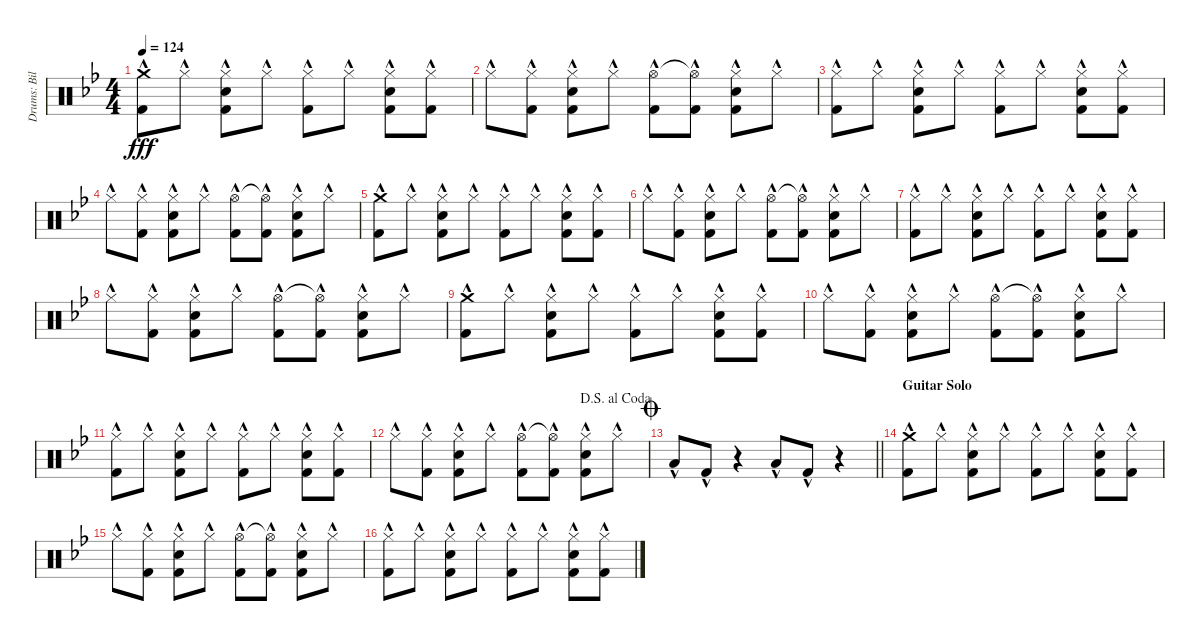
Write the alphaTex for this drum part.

\track ("Drums: Bill" "Drums: Bil") {instrument percussion}
\staff {score}
\articulation defaults
\ts (4 4)
\tempo 124
\clef neutral
\ks bb
("Crash medium (hit)"{hac} "Kick (hit) 2"{hac}).8{dy fff} "Hi-Hat (closed)"{hac}.8 ("Hi-Hat (closed)"{hac} "Snare (hit) 2"{hac} "Kick (hit) 2"{hac}).8 "Hi-Hat (closed)"{hac}.8 ("Hi-Hat (closed)"{hac} "Kick (hit) 2"{hac}).8 "Hi-Hat (closed)"{hac}.8 ("Hi-Hat (closed)"{hac} "Snare (hit) 2"{hac} "Kick (hit) 2"{hac}).8 ("Hi-Hat (closed)"{hac} "Kick (hit) 2"{hac}).8 |
"Hi-Hat (closed)"{hac}.8 ("Hi-Hat (closed)"{hac} "Kick (hit) 2"{hac}).8 ("Hi-Hat (closed)"{hac} "Snare (hit) 2"{hac} "Kick (hit) 2"{hac}).8 "Hi-Hat (closed)"{hac}.8 ("Hi-Hat (open)"{hac} "Kick (hit) 2"{hac}).8 ("Hi-Hat (open)"{t} "Kick (hit) 2"{hac}).8 ("Hi-Hat (closed)"{hac} "Snare (hit) 2"{hac} "Kick (hit) 2"{hac}).8 "Hi-Hat (closed)"{hac}.8 |
("Hi-Hat (closed)"{hac} "Kick (hit) 2"{hac}).8 "Hi-Hat (closed)"{hac}.8 ("Hi-Hat (closed)"{hac} "Snare (hit) 2"{hac} "Kick (hit) 2"{hac}).8 "Hi-Hat (closed)"{hac}.8 ("Hi-Hat (closed)"{hac} "Kick (hit) 2"{hac}).8 "Hi-Hat (closed)"{hac}.8 ("Hi-Hat (closed)"{hac} "Snare (hit) 2"{hac} "Kick (hit) 2"{hac}).8 ("Hi-Hat (closed)"{hac} "Kick (hit) 2"{hac}).8 |
"Hi-Hat (closed)"{hac}.8 ("Hi-Hat (closed)"{hac} "Kick (hit) 2"{hac}).8 ("Hi-Hat (closed)"{hac} "Snare (hit) 2"{hac} "Kick (hit) 2"{hac}).8 "Hi-Hat (closed)"{hac}.8 ("Hi-Hat (open)"{hac} "Kick (hit) 2"{hac}).8 ("Hi-Hat (open)"{t} "Kick (hit) 2"{hac}).8 ("Hi-Hat (closed)"{hac} "Snare (hit) 2"{hac} "Kick (hit) 2"{hac}).8 "Hi-Hat (closed)"{hac}.8 |
("Crash medium (hit)"{hac} "Kick (hit) 2"{hac}).8 "Hi-Hat (closed)"{hac}.8 ("Hi-Hat (closed)"{hac} "Snare (hit) 2"{hac} "Kick (hit) 2"{hac}).8 "Hi-Hat (closed)"{hac}.8 ("Hi-Hat (closed)"{hac} "Kick (hit) 2"{hac}).8 "Hi-Hat (closed)"{hac}.8 ("Hi-Hat (closed)"{hac} "Snare (hit) 2"{hac} "Kick (hit) 2"{hac}).8 ("Hi-Hat (closed)"{hac} "Kick (hit) 2"{hac}).8 |
"Hi-Hat (closed)"{hac}.8 ("Hi-Hat (closed)"{hac} "Kick (hit) 2"{hac}).8 ("Hi-Hat (closed)"{hac} "Snare (hit) 2"{hac} "Kick (hit) 2"{hac}).8 "Hi-Hat (closed)"{hac}.8 ("Hi-Hat (open)"{hac} "Kick (hit) 2"{hac}).8 ("Hi-Hat (open)"{t} "Kick (hit) 2"{hac}).8 ("Hi-Hat (closed)"{hac} "Snare (hit) 2"{hac} "Kick (hit) 2"{hac}).8 "Hi-Hat (closed)"{hac}.8 |
("Hi-Hat (closed)"{hac} "Kick (hit) 2"{hac}).8 "Hi-Hat (closed)"{hac}.8 ("Hi-Hat (closed)"{hac} "Snare (hit) 2"{hac} "Kick (hit) 2"{hac}).8 "Hi-Hat (closed)"{hac}.8 ("Hi-Hat (closed)"{hac} "Kick (hit) 2"{hac}).8 "Hi-Hat (closed)"{hac}.8 ("Hi-Hat (closed)"{hac} "Snare (hit) 2"{hac} "Kick (hit) 2"{hac}).8 ("Hi-Hat (closed)"{hac} "Kick (hit) 2"{hac}).8 |
"Hi-Hat (closed)"{hac}.8 ("Hi-Hat (closed)"{hac} "Kick (hit) 2"{hac}).8 ("Hi-Hat (closed)"{hac} "Snare (hit) 2"{hac} "Kick (hit) 2"{hac}).8 "Hi-Hat (closed)"{hac}.8 ("Hi-Hat (open)"{hac} "Kick (hit) 2"{hac}).8 ("Hi-Hat (open)"{t} "Kick (hit) 2"{hac}).8 ("Hi-Hat (closed)"{hac} "Snare (hit) 2"{hac} "Kick (hit) 2"{hac}).8 "Hi-Hat (closed)"{hac}.8 |
("Crash medium (hit)"{hac} "Kick (hit) 2"{hac}).8 "Hi-Hat (closed)"{hac}.8 ("Hi-Hat (closed)"{hac} "Snare (hit) 2"{hac} "Kick (hit) 2"{hac}).8 "Hi-Hat (closed)"{hac}.8 ("Hi-Hat (closed)"{hac} "Kick (hit) 2"{hac}).8 "Hi-Hat (closed)"{hac}.8 ("Hi-Hat (closed)"{hac} "Snare (hit) 2"{hac} "Kick (hit) 2"{hac}).8 ("Hi-Hat (closed)"{hac} "Kick (hit) 2"{hac}).8 |
"Hi-Hat (closed)"{hac}.8 ("Hi-Hat (closed)"{hac} "Kick (hit) 2"{hac}).8 ("Hi-Hat (closed)"{hac} "Snare (hit) 2"{hac} "Kick (hit) 2"{hac}).8 "Hi-Hat (closed)"{hac}.8 ("Hi-Hat (open)"{hac} "Kick (hit) 2"{hac}).8 ("Hi-Hat (open)"{t} "Kick (hit) 2"{hac}).8 ("Hi-Hat (closed)"{hac} "Snare (hit) 2"{hac} "Kick (hit) 2"{hac}).8 "Hi-Hat (closed)"{hac}.8 |
("Hi-Hat (closed)"{hac} "Kick (hit) 2"{hac}).8 "Hi-Hat (closed)"{hac}.8 ("Hi-Hat (closed)"{hac} "Snare (hit) 2"{hac} "Kick (hit) 2"{hac}).8 "Hi-Hat (closed)"{hac}.8 ("Hi-Hat (closed)"{hac} "Kick (hit) 2"{hac}).8 "Hi-Hat (closed)"{hac}.8 ("Hi-Hat (closed)"{hac} "Snare (hit) 2"{hac} "Kick (hit) 2"{hac}).8 ("Hi-Hat (closed)"{hac} "Kick (hit) 2"{hac}).8 |
\jump dalsegnoalcoda "Hi-Hat (closed)"{hac}.8
("Hi-Hat (closed)"{hac} "Kick (hit) 2"{hac}).8 ("Hi-Hat (closed)"{hac} "Snare (hit) 2"{hac} "Kick (hit) 2"{hac}).8 "Hi-Hat (closed)"{hac}.8 ("Hi-Hat (open)"{hac} "Kick (hit) 2"{hac}).8 ("Hi-Hat (open)"{t} "Kick (hit) 2"{hac}).8 ("Hi-Hat (closed)"{hac} "Snare (hit) 2"{hac} "Kick (hit) 2"{hac}).8 "Hi-Hat (closed)"{hac}.8 |
\jump coda
\barLineRight lightlight "Low Tom (hit)"{hac}.8 "Kick (hit) 2"{hac}.8
r.4 "Low Tom (hit)"{hac}.8 "Kick (hit) 2"{hac}.8 r.4 |
\section ("" "Guitar Solo")
("Crash medium (hit)"{hac} "Kick (hit) 2"{hac}).8 "Hi-Hat (closed)"{hac}.8 ("Hi-Hat (closed)"{hac} "Snare (hit) 2"{hac} "Kick (hit) 2"{hac}).8 "Hi-Hat (closed)"{hac}.8 ("Hi-Hat (closed)"{hac} "Kick (hit) 2"{hac}).8 "Hi-Hat (closed)"{hac}.8 ("Hi-Hat (closed)"{hac} "Snare (hit) 2"{hac} "Kick (hit) 2"{hac}).8 ("Hi-Hat (closed)"{hac} "Kick (hit) 2"{hac}).8 |
"Hi-Hat (closed)"{hac}.8 ("Hi-Hat (closed)"{hac} "Kick (hit) 2"{hac}).8 ("Hi-Hat (closed)"{hac} "Snare (hit) 2"{hac} "Kick (hit) 2"{hac}).8 "Hi-Hat (closed)"{hac}.8 ("Hi-Hat (open)"{hac} "Kick (hit) 2"{hac}).8 ("Hi-Hat (open)"{t} "Kick (hit) 2"{hac}).8 ("Hi-Hat (closed)"{hac} "Snare (hit) 2"{hac} "Kick (hit) 2"{hac}).8 "Hi-Hat (closed)"{hac}.8 |
("Hi-Hat (closed)"{hac} "Kick (hit) 2"{hac}).8 "Hi-Hat (closed)"{hac}.8 ("Hi-Hat (closed)"{hac} "Snare (hit) 2"{hac} "Kick (hit) 2"{hac}).8 "Hi-Hat (closed)"{hac}.8 ("Hi-Hat (closed)"{hac} "Kick (hit) 2"{hac}).8 "Hi-Hat (closed)"{hac}.8 ("Hi-Hat (closed)"{hac} "Snare (hit) 2"{hac} "Kick (hit) 2"{hac}).8 ("Hi-Hat (closed)"{hac} "Kick (hit) 2"{hac}).8
